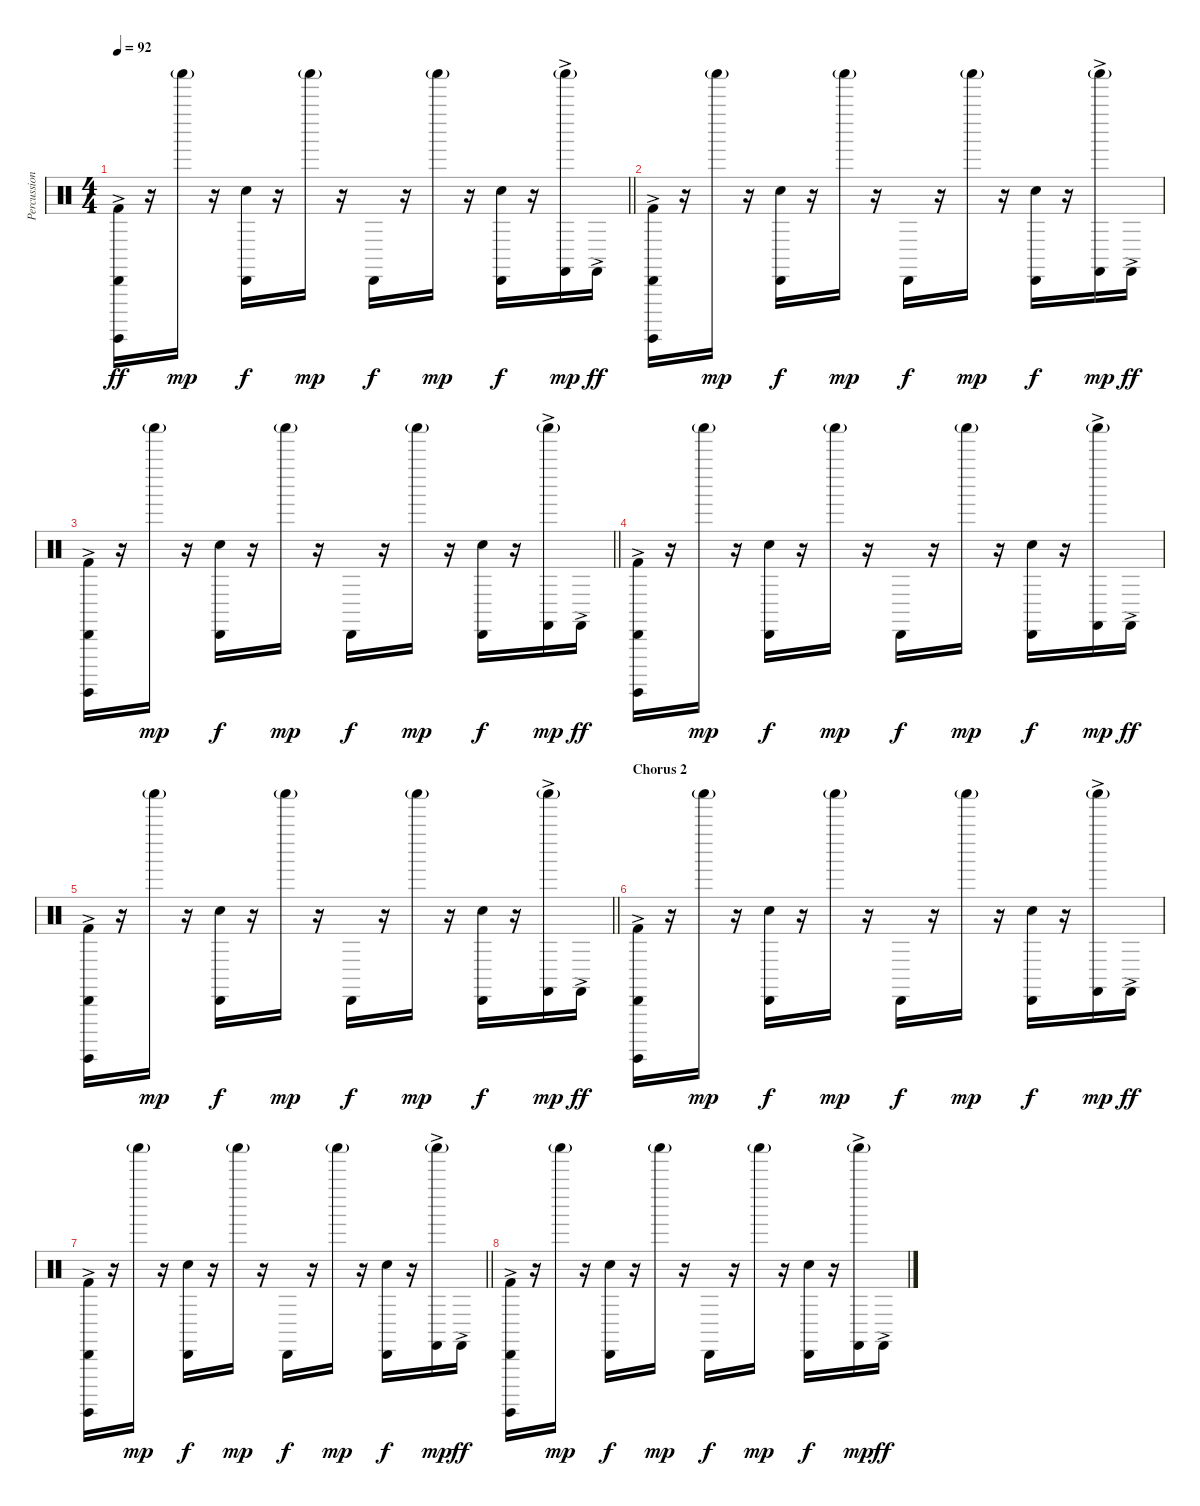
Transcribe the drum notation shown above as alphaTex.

\track ("Percussion" "Percussion") {instrument percussion}
\staff {score}
\articulation defaults
\ts (4 4)
\tempo 92
\clef neutral
\barLineRight lightlight
\ks c
("Kick (hit) 2" "Surdo (hit)"{ac} "Cabasa (hit)").16{dy ff} r.16 "Shaker (hit)"{g}.16{dy mp} r.16 ("Snare (hit) 2" "Cabasa (hit)").16{dy f} r.16 "Shaker (hit)"{g}.16{dy mp} r.16 "Cabasa (hit)".16{dy f} r.16 "Shaker (hit)"{g}.16{dy mp} r.16 ("Snare (hit) 2" "Cabasa (hit)").16{dy f} r.16 ("Castanets (hit)"{ac} "Shaker (hit)"{g}).16{dy mp} "Castanets (hit)"{ac}.16{dy ff} |
("Kick (hit) 2" "Surdo (hit)"{ac} "Cabasa (hit)").16 r.16 "Shaker (hit)"{g}.16{dy mp} r.16 ("Snare (hit) 2" "Cabasa (hit)").16{dy f} r.16 "Shaker (hit)"{g}.16{dy mp} r.16 "Cabasa (hit)".16{dy f} r.16 "Shaker (hit)"{g}.16{dy mp} r.16 ("Snare (hit) 2" "Cabasa (hit)").16{dy f} r.16 ("Castanets (hit)"{ac} "Shaker (hit)"{g}).16{dy mp} "Castanets (hit)"{ac}.16{dy ff} |
\barLineRight lightlight
("Kick (hit) 2" "Surdo (hit)"{ac} "Cabasa (hit)").16 r.16 "Shaker (hit)"{g}.16{dy mp} r.16 ("Snare (hit) 2" "Cabasa (hit)").16{dy f} r.16 "Shaker (hit)"{g}.16{dy mp} r.16 "Cabasa (hit)".16{dy f} r.16 "Shaker (hit)"{g}.16{dy mp} r.16 ("Snare (hit) 2" "Cabasa (hit)").16{dy f} r.16 ("Castanets (hit)"{ac} "Shaker (hit)"{g}).16{dy mp} "Castanets (hit)"{ac}.16{dy ff} |
("Kick (hit) 2" "Surdo (hit)"{ac} "Cabasa (hit)").16 r.16 "Shaker (hit)"{g}.16{dy mp} r.16 ("Snare (hit) 2" "Cabasa (hit)").16{dy f} r.16 "Shaker (hit)"{g}.16{dy mp} r.16 "Cabasa (hit)".16{dy f} r.16 "Shaker (hit)"{g}.16{dy mp} r.16 ("Snare (hit) 2" "Cabasa (hit)").16{dy f} r.16 ("Castanets (hit)"{ac} "Shaker (hit)"{g}).16{dy mp} "Castanets (hit)"{ac}.16{dy ff} |
\barLineRight lightlight
("Kick (hit) 2" "Surdo (hit)"{ac} "Cabasa (hit)").16 r.16 "Shaker (hit)"{g}.16{dy mp} r.16 ("Snare (hit) 2" "Cabasa (hit)").16{dy f} r.16 "Shaker (hit)"{g}.16{dy mp} r.16 "Cabasa (hit)".16{dy f} r.16 "Shaker (hit)"{g}.16{dy mp} r.16 ("Snare (hit) 2" "Cabasa (hit)").16{dy f} r.16 ("Castanets (hit)"{ac} "Shaker (hit)"{g}).16{dy mp} "Castanets (hit)"{ac}.16{dy ff} |
\section ("" "Chorus 2")
("Kick (hit) 2" "Surdo (hit)"{ac} "Cabasa (hit)").16 r.16 "Shaker (hit)"{g}.16{dy mp} r.16 ("Snare (hit) 2" "Cabasa (hit)").16{dy f} r.16 "Shaker (hit)"{g}.16{dy mp} r.16 "Cabasa (hit)".16{dy f} r.16 "Shaker (hit)"{g}.16{dy mp} r.16 ("Snare (hit) 2" "Cabasa (hit)").16{dy f} r.16 ("Castanets (hit)"{ac} "Shaker (hit)"{g}).16{dy mp} "Castanets (hit)"{ac}.16{dy ff} |
\barLineRight lightlight
("Kick (hit) 2" "Surdo (hit)"{ac} "Cabasa (hit)").16 r.16 "Shaker (hit)"{g}.16{dy mp} r.16 ("Snare (hit) 2" "Cabasa (hit)").16{dy f} r.16 "Shaker (hit)"{g}.16{dy mp} r.16 "Cabasa (hit)".16{dy f} r.16 "Shaker (hit)"{g}.16{dy mp} r.16 ("Snare (hit) 2" "Cabasa (hit)").16{dy f} r.16 ("Castanets (hit)"{ac} "Shaker (hit)"{g}).16{dy mp} "Castanets (hit)"{ac}.16{dy ff} |
("Kick (hit) 2" "Surdo (hit)"{ac} "Cabasa (hit)").16 r.16 "Shaker (hit)"{g}.16{dy mp} r.16 ("Snare (hit) 2" "Cabasa (hit)").16{dy f} r.16 "Shaker (hit)"{g}.16{dy mp} r.16 "Cabasa (hit)".16{dy f} r.16 "Shaker (hit)"{g}.16{dy mp} r.16 ("Snare (hit) 2" "Cabasa (hit)").16{dy f} r.16 ("Castanets (hit)"{ac} "Shaker (hit)"{g}).16{dy mp} "Castanets (hit)"{ac}.16{dy ff}
